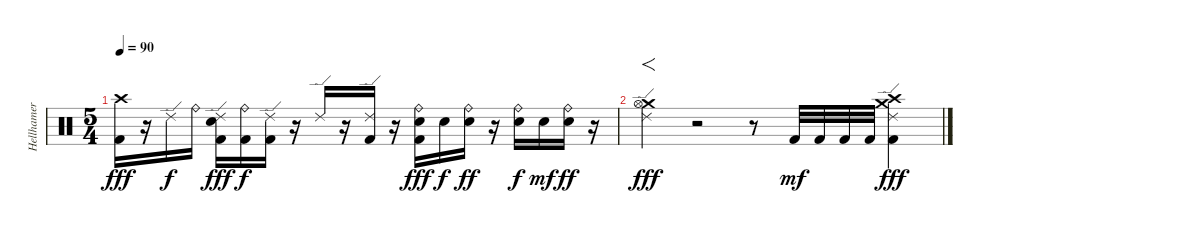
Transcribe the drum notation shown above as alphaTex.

\track ("Hellhamer" "Hellhamer") {instrument percussion}
\staff {score}
\articulation defaults
\ts (5 4)
\tempo 90
\clef neutral
\ks c
("Crash high (hit)" "Kick (hit) 2").16{dy fff} r.16 "Ride (edge) 2".16{dy f} "Ride (bell)".16 ("Ride (edge) 2" "Electric Snare (hit)" "Kick (hit) 2").16{dy fff} ("Ride (bell)" "Kick (hit) 2").16{dy f} ("Ride (edge) 2" "Kick (hit) 2").16 r.16 "Ride (edge) 2".16 r.16 ("Ride (edge) 2" "Kick (hit) 2").16 r.16 ("Ride (bell)" "Electric Snare (hit)" "Kick (hit) 2").16{dy fff} "Electric Snare (hit)".16{dy f} ("Ride (bell)" "Electric Snare (hit)").16{dy ff} r.16 ("Ride (bell)" "Electric Snare (hit)").16{dy f} "Electric Snare (hit)".16{dy mf} ("Ride (bell)" "Electric Snare (hit)").16{dy ff} r.16 |
("Crash medium (hit)" "Ride (edge) 2" "Hi-Hat (open)").4{f dy fff} r.2 r.8 "Kick (hit) 2".32{dy mf} "Kick (hit) 2".32 "Kick (hit) 2".32 "Kick (hit) 2".32 ("Crash high (hit)" "Ride (edge) 2" "Crash medium (hit)" "Kick (hit) 2").4{dy fff}
